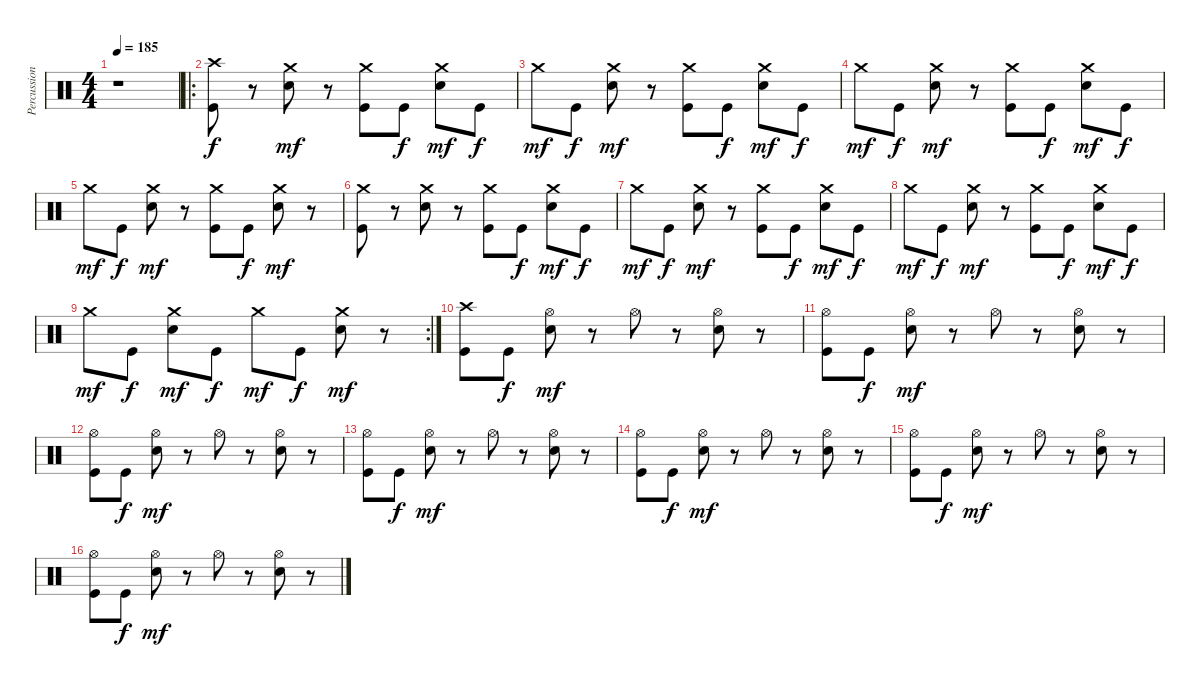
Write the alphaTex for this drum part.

\track ("Percussions" "Percussion") {instrument percussion}
\staff {score}
\articulation defaults
\ts (4 4)
\tempo 185
\clef neutral
\ks c
r.1{dy f} |
\ro
("Kick (hit)" "Crash high (hit)").8 r.8 ("Electric Snare (hit)" "Crash medium (hit)").8{dy mf} r.8 ("Kick (hit)" "Crash medium (hit)").8 "Kick (hit)".8{dy f} ("Electric Snare (hit)" "Crash medium (hit)").8{dy mf} "Kick (hit)".8{dy f} |
"Crash medium (hit)".8{dy mf} "Kick (hit)".8{dy f} ("Electric Snare (hit)" "Crash medium (hit)").8{dy mf} r.8 ("Kick (hit)" "Crash medium (hit)").8 "Kick (hit)".8{dy f} ("Electric Snare (hit)" "Crash medium (hit)").8{dy mf} "Kick (hit)".8{dy f} |
"Crash medium (hit)".8{dy mf} "Kick (hit)".8{dy f} ("Electric Snare (hit)" "Crash medium (hit)").8{dy mf} r.8 ("Kick (hit)" "Crash medium (hit)").8 "Kick (hit)".8{dy f} ("Electric Snare (hit)" "Crash medium (hit)").8{dy mf} "Kick (hit)".8{dy f} |
"Crash medium (hit)".8{dy mf} "Kick (hit)".8{dy f} ("Electric Snare (hit)" "Crash medium (hit)").8{dy mf} r.8 ("Kick (hit)" "Crash medium (hit)").8 "Kick (hit)".8{dy f} ("Electric Snare (hit)" "Crash medium (hit)").8{dy mf} r.8 |
("Kick (hit)" "Crash medium (hit)").8 r.8 ("Electric Snare (hit)" "Crash medium (hit)").8 r.8 ("Kick (hit)" "Crash medium (hit)").8 "Kick (hit)".8{dy f} ("Electric Snare (hit)" "Crash medium (hit)").8{dy mf} "Kick (hit)".8{dy f} |
"Crash medium (hit)".8{dy mf} "Kick (hit)".8{dy f} ("Electric Snare (hit)" "Crash medium (hit)").8{dy mf} r.8 ("Kick (hit)" "Crash medium (hit)").8 "Kick (hit)".8{dy f} ("Electric Snare (hit)" "Crash medium (hit)").8{dy mf} "Kick (hit)".8{dy f} |
"Crash medium (hit)".8{dy mf} "Kick (hit)".8{dy f} ("Electric Snare (hit)" "Crash medium (hit)").8{dy mf} r.8 ("Kick (hit)" "Crash medium (hit)").8 "Kick (hit)".8{dy f} ("Electric Snare (hit)" "Crash medium (hit)").8{dy mf} "Kick (hit)".8{dy f} |
\rc 2 "Crash medium (hit)".8{dy mf} "Kick (hit)".8{dy f}
("Electric Snare (hit)" "Crash medium (hit)").8{dy mf} "Kick (hit)".8{dy f} "Crash medium (hit)".8{dy mf} "Kick (hit)".8{dy f} ("Electric Snare (hit)" "Crash medium (hit)").8{dy mf} r.8 |
("Kick (hit)" "Crash high (hit)").8 "Kick (hit)".8{dy f} ("Electric Snare (hit)" "Hi-Hat (open)").8{dy mf} r.8 "Hi-Hat (open)".8 r.8 ("Electric Snare (hit)" "Hi-Hat (open)").8 r.8 |
("Kick (hit)" "Hi-Hat (open)").8 "Kick (hit)".8{dy f} ("Electric Snare (hit)" "Hi-Hat (open)").8{dy mf} r.8 "Hi-Hat (open)".8 r.8 ("Electric Snare (hit)" "Hi-Hat (open)").8 r.8 |
("Kick (hit)" "Hi-Hat (open)").8 "Kick (hit)".8{dy f} ("Electric Snare (hit)" "Hi-Hat (open)").8{dy mf} r.8 "Hi-Hat (open)".8 r.8 ("Electric Snare (hit)" "Hi-Hat (open)").8 r.8 |
("Kick (hit)" "Hi-Hat (open)").8 "Kick (hit)".8{dy f} ("Electric Snare (hit)" "Hi-Hat (open)").8{dy mf} r.8 "Hi-Hat (open)".8 r.8 ("Electric Snare (hit)" "Hi-Hat (open)").8 r.8 |
("Kick (hit)" "Hi-Hat (open)").8 "Kick (hit)".8{dy f} ("Electric Snare (hit)" "Hi-Hat (open)").8{dy mf} r.8 "Hi-Hat (open)".8 r.8 ("Electric Snare (hit)" "Hi-Hat (open)").8 r.8 |
("Kick (hit)" "Hi-Hat (open)").8 "Kick (hit)".8{dy f} ("Electric Snare (hit)" "Hi-Hat (open)").8{dy mf} r.8 "Hi-Hat (open)".8 r.8 ("Electric Snare (hit)" "Hi-Hat (open)").8 r.8 |
("Kick (hit)" "Hi-Hat (open)").8 "Kick (hit)".8{dy f} ("Electric Snare (hit)" "Hi-Hat (open)").8{dy mf} r.8 "Hi-Hat (open)".8 r.8 ("Electric Snare (hit)" "Hi-Hat (open)").8 r.8
